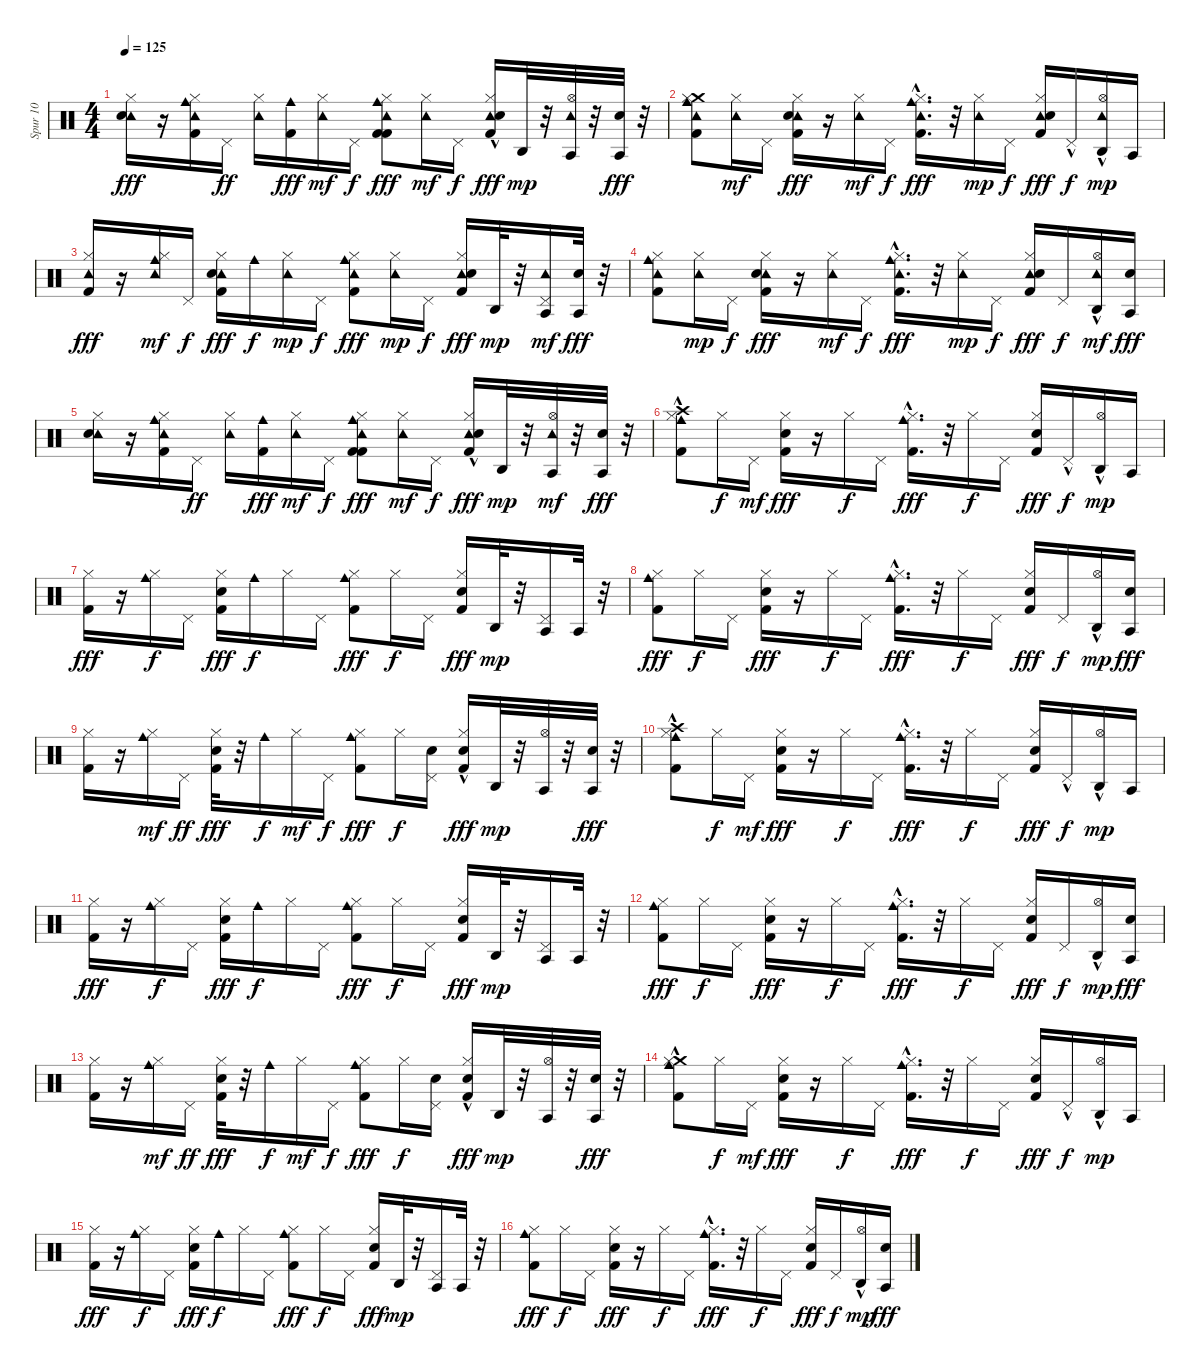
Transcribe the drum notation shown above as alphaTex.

\track ("Spur 10" "Spur 10") {instrument percussion}
\staff {score}
\articulation defaults
\ts (4 4)
\tempo 125
\clef neutral
\ks c
("Tambourine (hit)" "Electric Snare (hit)" "Hi-Hat (closed)").16{dy fff} r.16 ("Tambourine (hit)" "Cowbell medium (hit)" "Hi-Hat (closed)" "Kick (hit) 2").16 "Pedal Hi-Hat (hit)".16{dy ff} ("Tambourine (hit)" "Hi-Hat (closed)").16 ("Cowbell medium (hit)" "Kick (hit) 2").16{dy fff} ("Tambourine (hit)" "Hi-Hat (closed)").16{dy mf} "Pedal Hi-Hat (hit)".16{dy f} ("Tambourine (hit)" "Cowbell medium (hit)" "Kick (hit) 2" "Hi-Hat (closed)" "Kick (hit) 2").8{dy fff} ("Tambourine (hit)" "Hi-Hat (closed)").16{dy mf} "Pedal Hi-Hat (hit)".16{dy f} ("Tambourine (hit)" "Hi-Hat (closed)" "Kick (hit) 2"{hac} "Electric Snare (hit)").16{dy fff} "Agogo high (hit)".32{dy mp} r.32 ("Agogo tow (hit)" "Tambourine (hit)" "Hi-Hat (open)").32 r.32 ("Agogo tow (hit)" "Electric Snare (hit)").32{dy fff} r.32 |
("Tambourine (hit)" "Cowbell medium (hit)" "Crash medium (hit)" "Hi-Hat (closed)" "Kick (hit) 2").8 ("Tambourine (hit)" "Hi-Hat (closed)").16{dy mf} "Pedal Hi-Hat (hit)".16 ("Tambourine (hit)" "Electric Snare (hit)" "Kick (hit) 2" "Hi-Hat (closed)").16{dy fff} r.16 ("Tambourine (hit)" "Hi-Hat (closed)").16{dy mf} "Pedal Hi-Hat (hit)".16{dy f} ("Tambourine (hit)" "Cowbell medium (hit)"{hac} "Kick (hit) 2" "Hi-Hat (closed)").16{d dy fff} r.32 ("Tambourine (hit)" "Hi-Hat (closed)").16{dy mp} "Pedal Hi-Hat (hit)".16{dy f} ("Tambourine (hit)" "Kick (hit) 2" "Electric Snare (hit)" "Hi-Hat (closed)").16{dy fff} "Pedal Hi-Hat (hit)"{hac}.16{dy f} ("Agogo high (hit)" "Tambourine (hit)" "Hi-Hat (open)"{hac}).16{dy mp} "Agogo tow (hit)".16 |
("Tambourine (hit)" "Kick (hit) 2" "Hi-Hat (closed)").16{dy fff} r.16 ("Cowbell medium (hit)" "Tambourine (hit)" "Hi-Hat (closed)").16{dy mf} "Pedal Hi-Hat (hit)".16{dy f} ("Tambourine (hit)" "Hi-Hat (closed)" "Kick (hit) 2" "Electric Snare (hit)").16{dy fff} "Cowbell medium (hit)".16{dy f} ("Tambourine (hit)" "Hi-Hat (closed)").16{dy mp} "Pedal Hi-Hat (hit)".16{dy f} ("Cowbell medium (hit)" "Tambourine (hit)" "Kick (hit) 2" "Hi-Hat (closed)").8{dy fff} ("Tambourine (hit)" "Hi-Hat (closed)").16{dy mp} "Pedal Hi-Hat (hit)".16{dy f} ("Tambourine (hit)" "Electric Snare (hit)" "Kick (hit) 2" "Hi-Hat (closed)").16{dy fff} "Agogo high (hit)".32{dy mp} r.32 ("Agogo tow (hit)" "Tambourine (hit)" "Pedal Hi-Hat (hit)").16{dy mf} ("Agogo tow (hit)" "Electric Snare (hit)").32{dy fff} r.32 |
("Tambourine (hit)" "Cowbell medium (hit)" "Kick (hit) 2" "Hi-Hat (closed)").8 ("Tambourine (hit)" "Hi-Hat (closed)").16{dy mp} "Pedal Hi-Hat (hit)".16{dy f} ("Tambourine (hit)" "Electric Snare (hit)" "Kick (hit) 2" "Hi-Hat (closed)").16{dy fff} r.16 ("Tambourine (hit)" "Hi-Hat (closed)").16{dy mf} "Pedal Hi-Hat (hit)".16{dy f} ("Tambourine (hit)" "Cowbell medium (hit)"{hac} "Hi-Hat (closed)" "Kick (hit) 2").16{d dy fff} r.32 ("Tambourine (hit)" "Hi-Hat (closed)").16{dy mp} "Pedal Hi-Hat (hit)".16{dy f} ("Tambourine (hit)" "Kick (hit) 2" "Electric Snare (hit)" "Hi-Hat (closed)").16{dy fff} "Pedal Hi-Hat (hit)".16{dy f} ("Agogo high (hit)" "Tambourine (hit)" "Hi-Hat (open)"{hac}).16{dy mf} ("Agogo tow (hit)" "Electric Snare (hit)").16{dy fff} |
("Tambourine (hit)" "Electric Snare (hit)" "Hi-Hat (closed)").16 r.16 ("Tambourine (hit)" "Cowbell medium (hit)" "Hi-Hat (closed)" "Kick (hit) 2").16 "Pedal Hi-Hat (hit)".16{dy ff} ("Tambourine (hit)" "Hi-Hat (closed)").16 ("Cowbell medium (hit)" "Kick (hit) 2").16{dy fff} ("Tambourine (hit)" "Hi-Hat (closed)").16{dy mf} "Pedal Hi-Hat (hit)".16{dy f} ("Tambourine (hit)" "Cowbell medium (hit)" "Kick (hit) 2" "Hi-Hat (closed)" "Kick (hit) 2").8{dy fff} ("Tambourine (hit)" "Hi-Hat (closed)").16{dy mf} "Pedal Hi-Hat (hit)".16{dy f} ("Tambourine (hit)" "Hi-Hat (closed)" "Kick (hit) 2"{hac} "Electric Snare (hit)").16{dy fff} "Agogo high (hit)".32{dy mp} r.32 ("Agogo tow (hit)" "Tambourine (hit)" "Hi-Hat (open)").32{dy mf} r.32 ("Agogo tow (hit)" "Electric Snare (hit)").32{dy fff} r.32 |
("Cowbell medium (hit)" "Crash high (hit)"{hac} "Hi-Hat (closed)" "Kick (hit) 2").8 "Hi-Hat (closed)".16{dy f} "Pedal Hi-Hat (hit)".16{dy mf} ("Electric Snare (hit)" "Kick (hit) 2" "Hi-Hat (closed)").16{dy fff} r.16 "Hi-Hat (closed)".16{dy f} "Pedal Hi-Hat (hit)".16 ("Cowbell medium (hit)"{hac} "Kick (hit) 2" "Hi-Hat (closed)").16{d dy fff} r.32 "Hi-Hat (closed)".16{dy f} "Pedal Hi-Hat (hit)".16 ("Kick (hit) 2" "Electric Snare (hit)" "Hi-Hat (closed)").16{dy fff} "Pedal Hi-Hat (hit)"{hac}.16{dy f} ("Agogo high (hit)" "Hi-Hat (open)"{hac}).16{dy mp} "Agogo tow (hit)".16 |
("Kick (hit) 2" "Hi-Hat (closed)").16{dy fff} r.16 ("Cowbell medium (hit)" "Hi-Hat (closed)").16{dy f} "Pedal Hi-Hat (hit)".16 ("Hi-Hat (closed)" "Kick (hit) 2" "Electric Snare (hit)").16{dy fff} "Cowbell medium (hit)".16{dy f} "Hi-Hat (closed)".16 "Pedal Hi-Hat (hit)".16 ("Cowbell medium (hit)" "Kick (hit) 2" "Hi-Hat (closed)").8{dy fff} "Hi-Hat (closed)".16{dy f} "Pedal Hi-Hat (hit)".16 ("Electric Snare (hit)" "Kick (hit) 2" "Hi-Hat (closed)").16{dy fff} "Agogo high (hit)".32{dy mp} r.32 ("Agogo tow (hit)" "Pedal Hi-Hat (hit)").16 "Agogo tow (hit)".32 r.32 |
("Cowbell medium (hit)" "Kick (hit) 2" "Hi-Hat (closed)").8{dy fff} "Hi-Hat (closed)".16{dy f} "Pedal Hi-Hat (hit)".16 ("Electric Snare (hit)" "Kick (hit) 2" "Hi-Hat (closed)").16{dy fff} r.16 "Hi-Hat (closed)".16{dy f} "Pedal Hi-Hat (hit)".16 ("Cowbell medium (hit)"{hac} "Hi-Hat (closed)" "Kick (hit) 2").16{d dy fff} r.32 "Hi-Hat (closed)".16{dy f} "Pedal Hi-Hat (hit)".16 ("Kick (hit) 2" "Electric Snare (hit)" "Hi-Hat (closed)").16{dy fff} "Pedal Hi-Hat (hit)".16{dy f} ("Agogo high (hit)" "Hi-Hat (open)"{hac}).16{dy mp} ("Agogo tow (hit)" "Electric Snare (hit)").16{dy fff} |
("Kick (hit) 2" "Hi-Hat (closed)").16 r.16 ("Cowbell medium (hit)" "Hi-Hat (closed)").16{dy mf} "Pedal Hi-Hat (hit)".16{dy ff} ("Electric Snare (hit)" "Kick (hit) 2" "Hi-Hat (closed)").32{dy fff} r.32 "Cowbell medium (hit)".16{dy f} "Hi-Hat (closed)".16{dy mf} "Pedal Hi-Hat (hit)".16{dy f} ("Cowbell medium (hit)" "Hi-Hat (closed)" "Kick (hit) 2").8{dy fff} "Hi-Hat (closed)".16{dy f} ("Pedal Hi-Hat (hit)" "Electric Snare (hit)").16 ("Hi-Hat (closed)" "Kick (hit) 2"{hac} "Electric Snare (hit)").16{dy fff} "Agogo high (hit)".32{dy mp} r.32 ("Agogo tow (hit)" "Hi-Hat (open)").32 r.32 ("Agogo tow (hit)" "Electric Snare (hit)").32{dy fff} r.32 |
("Cowbell medium (hit)" "Crash high (hit)"{hac} "Hi-Hat (closed)" "Kick (hit) 2").8 "Hi-Hat (closed)".16{dy f} "Pedal Hi-Hat (hit)".16{dy mf} ("Electric Snare (hit)" "Kick (hit) 2" "Hi-Hat (closed)").16{dy fff} r.16 "Hi-Hat (closed)".16{dy f} "Pedal Hi-Hat (hit)".16 ("Cowbell medium (hit)"{hac} "Kick (hit) 2" "Hi-Hat (closed)").16{d dy fff} r.32 "Hi-Hat (closed)".16{dy f} "Pedal Hi-Hat (hit)".16 ("Kick (hit) 2" "Electric Snare (hit)" "Hi-Hat (closed)").16{dy fff} "Pedal Hi-Hat (hit)"{hac}.16{dy f} ("Agogo high (hit)" "Hi-Hat (open)"{hac}).16{dy mp} "Agogo tow (hit)".16 |
("Kick (hit) 2" "Hi-Hat (closed)").16{dy fff} r.16 ("Cowbell medium (hit)" "Hi-Hat (closed)").16{dy f} "Pedal Hi-Hat (hit)".16 ("Hi-Hat (closed)" "Kick (hit) 2" "Electric Snare (hit)").16{dy fff} "Cowbell medium (hit)".16{dy f} "Hi-Hat (closed)".16 "Pedal Hi-Hat (hit)".16 ("Cowbell medium (hit)" "Kick (hit) 2" "Hi-Hat (closed)").8{dy fff} "Hi-Hat (closed)".16{dy f} "Pedal Hi-Hat (hit)".16 ("Electric Snare (hit)" "Kick (hit) 2" "Hi-Hat (closed)").16{dy fff} "Agogo high (hit)".32{dy mp} r.32 ("Agogo tow (hit)" "Pedal Hi-Hat (hit)").16 "Agogo tow (hit)".32 r.32 |
("Cowbell medium (hit)" "Kick (hit) 2" "Hi-Hat (closed)").8{dy fff} "Hi-Hat (closed)".16{dy f} "Pedal Hi-Hat (hit)".16 ("Electric Snare (hit)" "Kick (hit) 2" "Hi-Hat (closed)").16{dy fff} r.16 "Hi-Hat (closed)".16{dy f} "Pedal Hi-Hat (hit)".16 ("Cowbell medium (hit)"{hac} "Hi-Hat (closed)" "Kick (hit) 2").16{d dy fff} r.32 "Hi-Hat (closed)".16{dy f} "Pedal Hi-Hat (hit)".16 ("Kick (hit) 2" "Electric Snare (hit)" "Hi-Hat (closed)").16{dy fff} "Pedal Hi-Hat (hit)".16{dy f} ("Agogo high (hit)" "Hi-Hat (open)"{hac}).16{dy mp} ("Agogo tow (hit)" "Electric Snare (hit)").16{dy fff} |
("Kick (hit) 2" "Hi-Hat (closed)").16 r.16 ("Cowbell medium (hit)" "Hi-Hat (closed)").16{dy mf} "Pedal Hi-Hat (hit)".16{dy ff} ("Electric Snare (hit)" "Kick (hit) 2" "Hi-Hat (closed)").32{dy fff} r.32 "Cowbell medium (hit)".16{dy f} "Hi-Hat (closed)".16{dy mf} "Pedal Hi-Hat (hit)".16{dy f} ("Cowbell medium (hit)" "Hi-Hat (closed)" "Kick (hit) 2").8{dy fff} "Hi-Hat (closed)".16{dy f} ("Pedal Hi-Hat (hit)" "Electric Snare (hit)").16 ("Hi-Hat (closed)" "Kick (hit) 2"{hac} "Electric Snare (hit)").16{dy fff} "Agogo high (hit)".32{dy mp} r.32 ("Agogo tow (hit)" "Hi-Hat (open)").32 r.32 ("Agogo tow (hit)" "Electric Snare (hit)").32{dy fff} r.32 |
("Cowbell medium (hit)" "Crash medium (hit)"{hac} "Hi-Hat (closed)" "Kick (hit) 2").8 "Hi-Hat (closed)".16{dy f} "Pedal Hi-Hat (hit)".16{dy mf} ("Electric Snare (hit)" "Kick (hit) 2" "Hi-Hat (closed)").16{dy fff} r.16 "Hi-Hat (closed)".16{dy f} "Pedal Hi-Hat (hit)".16 ("Cowbell medium (hit)"{hac} "Kick (hit) 2" "Hi-Hat (closed)").16{d dy fff} r.32 "Hi-Hat (closed)".16{dy f} "Pedal Hi-Hat (hit)".16 ("Kick (hit) 2" "Electric Snare (hit)" "Hi-Hat (closed)").16{dy fff} "Pedal Hi-Hat (hit)"{hac}.16{dy f} ("Agogo high (hit)" "Hi-Hat (open)"{hac}).16{dy mp} "Agogo tow (hit)".16 |
("Kick (hit) 2" "Hi-Hat (closed)").16{dy fff} r.16 ("Cowbell medium (hit)" "Hi-Hat (closed)").16{dy f} "Pedal Hi-Hat (hit)".16 ("Hi-Hat (closed)" "Kick (hit) 2" "Electric Snare (hit)").16{dy fff} "Cowbell medium (hit)".16{dy f} "Hi-Hat (closed)".16 "Pedal Hi-Hat (hit)".16 ("Cowbell medium (hit)" "Kick (hit) 2" "Hi-Hat (closed)").8{dy fff} "Hi-Hat (closed)".16{dy f} "Pedal Hi-Hat (hit)".16 ("Electric Snare (hit)" "Kick (hit) 2" "Hi-Hat (closed)").16{dy fff} "Agogo high (hit)".32{dy mp} r.32 ("Agogo tow (hit)" "Pedal Hi-Hat (hit)").16 "Agogo tow (hit)".32 r.32 |
("Cowbell medium (hit)" "Kick (hit) 2" "Hi-Hat (closed)").8{dy fff} "Hi-Hat (closed)".16{dy f} "Pedal Hi-Hat (hit)".16 ("Electric Snare (hit)" "Kick (hit) 2" "Hi-Hat (closed)").16{dy fff} r.16 "Hi-Hat (closed)".16{dy f} "Pedal Hi-Hat (hit)".16 ("Cowbell medium (hit)"{hac} "Hi-Hat (closed)" "Kick (hit) 2").16{d dy fff} r.32 "Hi-Hat (closed)".16{dy f} "Pedal Hi-Hat (hit)".16 ("Kick (hit) 2" "Electric Snare (hit)" "Hi-Hat (closed)").16{dy fff} "Pedal Hi-Hat (hit)".16{dy f} ("Agogo high (hit)" "Hi-Hat (open)"{hac}).16{dy mp} ("Agogo tow (hit)" "Electric Snare (hit)").16{dy fff}
